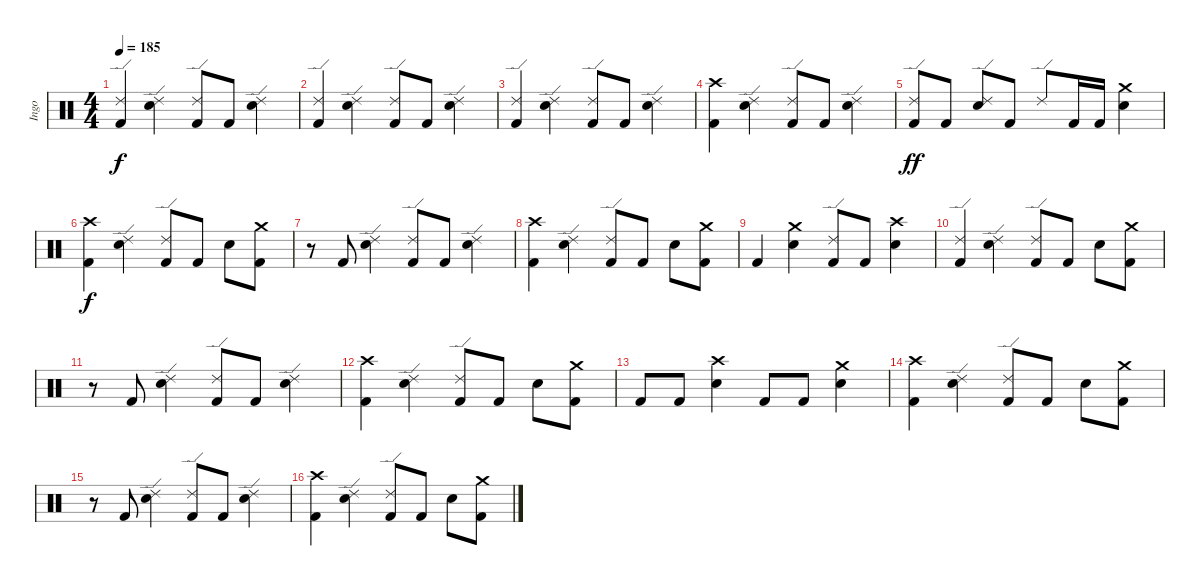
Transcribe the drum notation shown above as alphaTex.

\track ("Ingo" "Ingo") {instrument percussion}
\staff {score}
\articulation defaults
\ts (4 4)
\tempo 185
\clef neutral
\ks c
("Ride (edge) 2" "Kick (hit) 2").4{dy f} ("Ride (edge) 2" "Electric Snare (hit)").4 ("Ride (edge) 2" "Kick (hit) 2").8 "Kick (hit) 2".8 ("Ride (edge) 2" "Electric Snare (hit)").4 |
("Ride (edge) 2" "Kick (hit) 2").4 ("Ride (edge) 2" "Electric Snare (hit)").4 ("Ride (edge) 2" "Kick (hit) 2").8 "Kick (hit) 2".8 ("Ride (edge) 2" "Electric Snare (hit)").4 |
("Ride (edge) 2" "Kick (hit) 2").4 ("Ride (edge) 2" "Electric Snare (hit)").4 ("Ride (edge) 2" "Kick (hit) 2").8 "Kick (hit) 2".8 ("Ride (edge) 2" "Electric Snare (hit)").4 |
("Crash high (hit)" "Kick (hit) 2").4 ("Ride (edge) 2" "Electric Snare (hit)").4 ("Ride (edge) 2" "Kick (hit) 2").8 "Kick (hit) 2".8 ("Ride (edge) 2" "Electric Snare (hit)").4 |
("Ride (edge) 2" "Kick (hit) 2").8{dy ff} "Kick (hit) 2".8 ("Ride (edge) 2" "Electric Snare (hit)").8 "Kick (hit) 2".8 "Ride (edge) 2".8 "Kick (hit) 2".16 "Kick (hit) 2".16 ("Crash medium (hit)" "Electric Snare (hit)").4 |
("Crash high (hit)" "Kick (hit) 2").4{dy f} ("Ride (edge) 2" "Electric Snare (hit)").4 ("Ride (edge) 2" "Kick (hit) 2").8 "Kick (hit) 2".8 "Electric Snare (hit)".8 ("Crash medium (hit)" "Kick (hit) 2").8 |
r.8 "Kick (hit) 2".8 ("Ride (edge) 2" "Electric Snare (hit)").4 ("Ride (edge) 2" "Kick (hit) 2").8 "Kick (hit) 2".8 ("Ride (edge) 2" "Electric Snare (hit)").4 |
("Crash high (hit)" "Kick (hit) 2").4 ("Ride (edge) 2" "Electric Snare (hit)").4 ("Ride (edge) 2" "Kick (hit) 2").8 "Kick (hit) 2".8 "Electric Snare (hit)".8 ("Crash medium (hit)" "Kick (hit) 2").8 |
"Kick (hit) 2".4 ("Crash medium (hit)" "Electric Snare (hit)").4 ("Ride (edge) 2" "Kick (hit) 2").8 "Kick (hit) 2".8 ("Crash high (hit)" "Electric Snare (hit)").4 |
("Ride (edge) 2" "Kick (hit) 2").4 ("Ride (edge) 2" "Electric Snare (hit)").4 ("Ride (edge) 2" "Kick (hit) 2").8 "Kick (hit) 2".8 "Electric Snare (hit)".8 ("Crash medium (hit)" "Kick (hit) 2").8 |
r.8 "Kick (hit) 2".8 ("Ride (edge) 2" "Electric Snare (hit)").4 ("Ride (edge) 2" "Kick (hit) 2").8 "Kick (hit) 2".8 ("Ride (edge) 2" "Electric Snare (hit)").4 |
("Crash high (hit)" "Kick (hit) 2").4 ("Ride (edge) 2" "Electric Snare (hit)").4 ("Ride (edge) 2" "Kick (hit) 2").8 "Kick (hit) 2".8 "Electric Snare (hit)".8 ("Crash medium (hit)" "Kick (hit) 2").8 |
"Kick (hit) 2".8 "Kick (hit) 2".8 ("Crash high (hit)" "Electric Snare (hit)").4 "Kick (hit) 2".8 "Kick (hit) 2".8 ("Crash medium (hit)" "Electric Snare (hit)").4 |
("Crash high (hit)" "Kick (hit) 2").4 ("Ride (edge) 2" "Electric Snare (hit)").4 ("Ride (edge) 2" "Kick (hit) 2").8 "Kick (hit) 2".8 "Electric Snare (hit)".8 ("Crash medium (hit)" "Kick (hit) 2").8 |
r.8 "Kick (hit) 2".8 ("Ride (edge) 2" "Electric Snare (hit)").4 ("Ride (edge) 2" "Kick (hit) 2").8 "Kick (hit) 2".8 ("Ride (edge) 2" "Electric Snare (hit)").4 |
("Crash high (hit)" "Kick (hit) 2").4 ("Ride (edge) 2" "Electric Snare (hit)").4 ("Ride (edge) 2" "Kick (hit) 2").8 "Kick (hit) 2".8 "Electric Snare (hit)".8 ("Crash medium (hit)" "Kick (hit) 2").8
